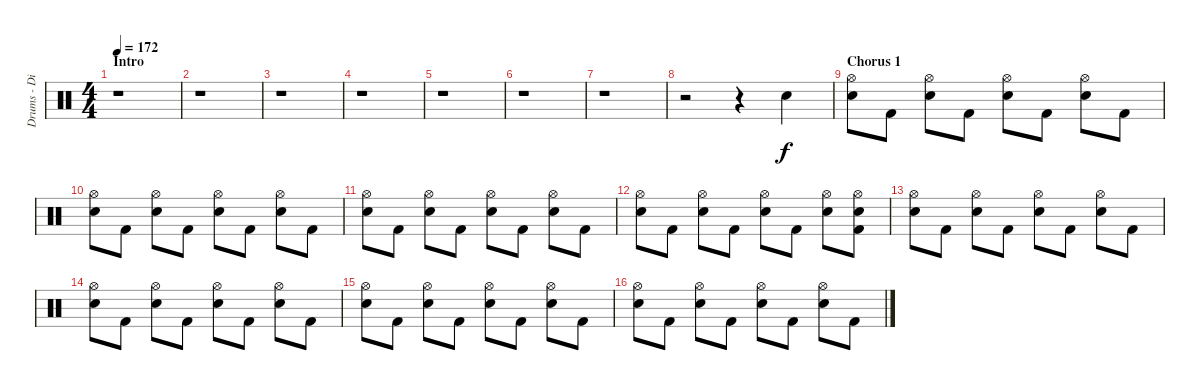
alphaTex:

\track ("Drums - Dino Campanella" "Drums - Di") {instrument percussion}
\staff {score}
\articulation defaults
\ts (4 4)
\section ("" "Intro")
\tempo 172
\clef neutral
\ks c
r.1{dy f} |
r.1 |
r.1 |
r.1 |
r.1 |
r.1 |
r.1 |
r.2 r.4 "Electric Snare (hit)".4 |
\section ("" "Chorus 1")
("Hi-Hat (open)" "Electric Snare (hit)").8 "Kick (hit) 2".8 ("Hi-Hat (open)" "Electric Snare (hit)").8 "Kick (hit) 2".8 ("Hi-Hat (open)" "Electric Snare (hit)").8 "Kick (hit) 2".8 ("Hi-Hat (open)" "Electric Snare (hit)").8 "Kick (hit) 2".8 |
("Hi-Hat (open)" "Electric Snare (hit)").8 "Kick (hit) 2".8 ("Hi-Hat (open)" "Electric Snare (hit)").8 "Kick (hit) 2".8 ("Hi-Hat (open)" "Electric Snare (hit)").8 "Kick (hit) 2".8 ("Hi-Hat (open)" "Electric Snare (hit)").8 "Kick (hit) 2".8 |
("Hi-Hat (open)" "Electric Snare (hit)").8 "Kick (hit) 2".8 ("Hi-Hat (open)" "Electric Snare (hit)").8 "Kick (hit) 2".8 ("Hi-Hat (open)" "Electric Snare (hit)").8 "Kick (hit) 2".8 ("Hi-Hat (open)" "Electric Snare (hit)").8 "Kick (hit) 2".8 |
("Hi-Hat (open)" "Electric Snare (hit)").8 "Kick (hit) 2".8 ("Hi-Hat (open)" "Electric Snare (hit)").8 "Kick (hit) 2".8 ("Hi-Hat (open)" "Electric Snare (hit)").8 "Kick (hit) 2".8 ("Hi-Hat (open)" "Electric Snare (hit)").8 ("Hi-Hat (open)" "Electric Snare (hit)" "Kick (hit) 2").8 |
("Hi-Hat (open)" "Electric Snare (hit)").8 "Kick (hit) 2".8 ("Hi-Hat (open)" "Electric Snare (hit)").8 "Kick (hit) 2".8 ("Hi-Hat (open)" "Electric Snare (hit)").8 "Kick (hit) 2".8 ("Hi-Hat (open)" "Electric Snare (hit)").8 "Kick (hit) 2".8 |
("Hi-Hat (open)" "Electric Snare (hit)").8 "Kick (hit) 2".8 ("Hi-Hat (open)" "Electric Snare (hit)").8 "Kick (hit) 2".8 ("Hi-Hat (open)" "Electric Snare (hit)").8 "Kick (hit) 2".8 ("Hi-Hat (open)" "Electric Snare (hit)").8 "Kick (hit) 2".8 |
("Hi-Hat (open)" "Electric Snare (hit)").8 "Kick (hit) 2".8 ("Hi-Hat (open)" "Electric Snare (hit)").8 "Kick (hit) 2".8 ("Hi-Hat (open)" "Electric Snare (hit)").8 "Kick (hit) 2".8 ("Hi-Hat (open)" "Electric Snare (hit)").8 "Kick (hit) 2".8 |
("Hi-Hat (open)" "Electric Snare (hit)").8 "Kick (hit) 2".8 ("Hi-Hat (open)" "Electric Snare (hit)").8 "Kick (hit) 2".8 ("Hi-Hat (open)" "Electric Snare (hit)").8 "Kick (hit) 2".8 ("Hi-Hat (open)" "Electric Snare (hit)").8 "Kick (hit) 2".8
